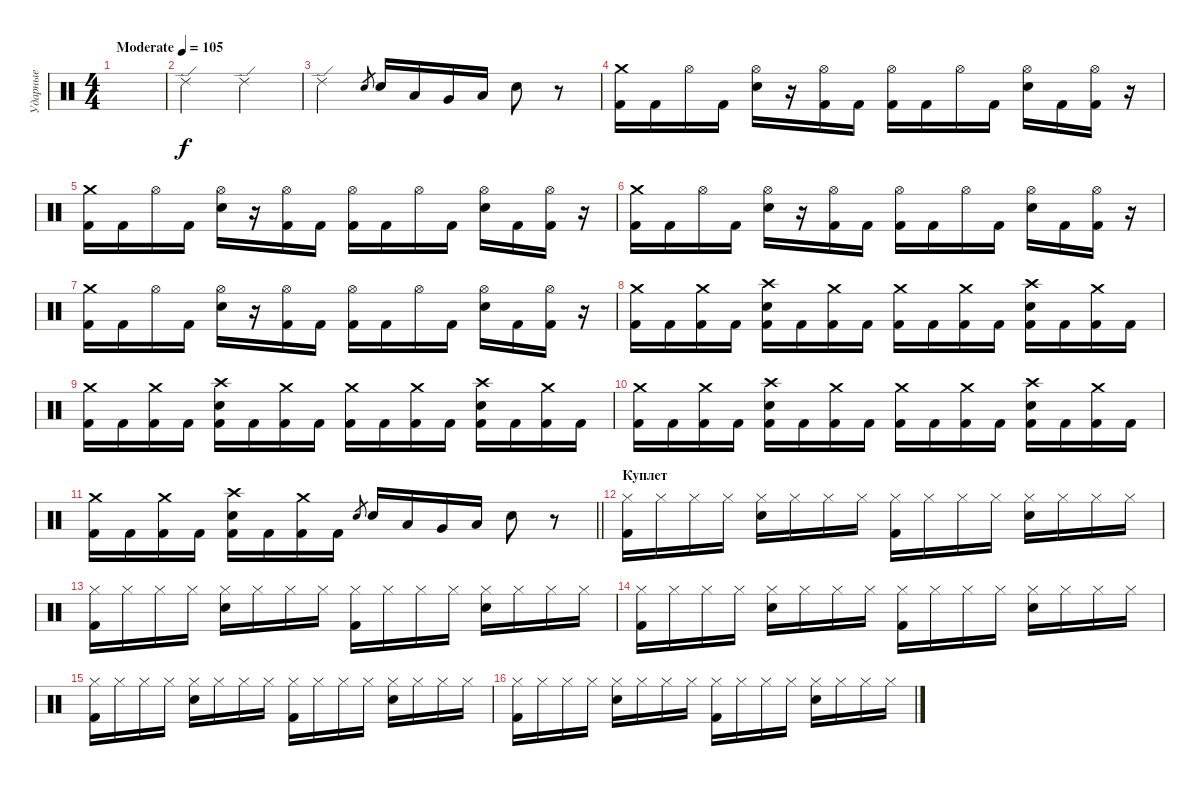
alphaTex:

\track ("Ударные" "Ударные") {instrument percussion}
\staff {score}
\articulation defaults
\ts (4 4)
\tempo (105 "Moderate")
\clef neutral
\ks c
|
"Ride (edge) 2".2 "Ride (edge) 2".2 |
"Ride (edge) 2".2 "Electric Snare (hit)".8{gr} "Electric Snare (hit)".16 "Low Tom (hit)".16 "Very Low Tom (hit)".16 "Low Floor Tom (hit)".16 "Electric Snare (hit)".8 r.8 |
("Crash medium (hit)" "Kick (hit) 2").16 "Kick (hit) 2".16 "Hi-Hat (open)".16 "Kick (hit) 2".16 ("Hi-Hat (open)" "Electric Snare (hit)").16 r.16 ("Hi-Hat (open)" "Kick (hit) 2").16 "Kick (hit) 2".16 ("Hi-Hat (open)" "Kick (hit) 2").16 "Kick (hit) 2".16 "Hi-Hat (open)".16 "Kick (hit) 2".16 ("Hi-Hat (open)" "Electric Snare (hit)").16 "Kick (hit) 2".16 ("Hi-Hat (open)" "Kick (hit) 2").16 r.16 |
("Crash medium (hit)" "Kick (hit) 2").16 "Kick (hit) 2".16 "Hi-Hat (open)".16 "Kick (hit) 2".16 ("Hi-Hat (open)" "Electric Snare (hit)").16 r.16 ("Hi-Hat (open)" "Kick (hit) 2").16 "Kick (hit) 2".16 ("Hi-Hat (open)" "Kick (hit) 2").16 "Kick (hit) 2".16 "Hi-Hat (open)".16 "Kick (hit) 2".16 ("Hi-Hat (open)" "Electric Snare (hit)").16 "Kick (hit) 2".16 ("Hi-Hat (open)" "Kick (hit) 2").16 r.16 |
("Crash medium (hit)" "Kick (hit) 2").16 "Kick (hit) 2".16 "Hi-Hat (open)".16 "Kick (hit) 2".16 ("Hi-Hat (open)" "Electric Snare (hit)").16 r.16 ("Hi-Hat (open)" "Kick (hit) 2").16 "Kick (hit) 2".16 ("Hi-Hat (open)" "Kick (hit) 2").16 "Kick (hit) 2".16 "Hi-Hat (open)".16 "Kick (hit) 2".16 ("Hi-Hat (open)" "Electric Snare (hit)").16 "Kick (hit) 2".16 ("Hi-Hat (open)" "Kick (hit) 2").16 r.16 |
("Crash medium (hit)" "Kick (hit) 2").16 "Kick (hit) 2".16 "Hi-Hat (open)".16 "Kick (hit) 2".16 ("Hi-Hat (open)" "Electric Snare (hit)").16 r.16 ("Hi-Hat (open)" "Kick (hit) 2").16 "Kick (hit) 2".16 ("Hi-Hat (open)" "Kick (hit) 2").16 "Kick (hit) 2".16 "Hi-Hat (open)".16 "Kick (hit) 2".16 ("Hi-Hat (open)" "Electric Snare (hit)").16 "Kick (hit) 2".16 ("Hi-Hat (open)" "Kick (hit) 2").16 r.16 |
("Crash medium (hit)" "Kick (hit) 2").16 "Kick (hit) 2".16 ("Crash medium (hit)" "Kick (hit) 2").16 "Kick (hit) 2".16 ("Crash high (hit)" "Electric Snare (hit)" "Kick (hit) 2").16 "Kick (hit) 2".16 ("Crash medium (hit)" "Kick (hit) 2").16 "Kick (hit) 2".16 ("Crash medium (hit)" "Kick (hit) 2").16 "Kick (hit) 2".16 ("Crash medium (hit)" "Kick (hit) 2").16 "Kick (hit) 2".16 ("Crash high (hit)" "Electric Snare (hit)" "Kick (hit) 2").16 "Kick (hit) 2".16 ("Crash medium (hit)" "Kick (hit) 2").16 "Kick (hit) 2".16 |
("Crash medium (hit)" "Kick (hit) 2").16 "Kick (hit) 2".16 ("Crash medium (hit)" "Kick (hit) 2").16 "Kick (hit) 2".16 ("Crash high (hit)" "Electric Snare (hit)" "Kick (hit) 2").16 "Kick (hit) 2".16 ("Crash medium (hit)" "Kick (hit) 2").16 "Kick (hit) 2".16 ("Crash medium (hit)" "Kick (hit) 2").16 "Kick (hit) 2".16 ("Crash medium (hit)" "Kick (hit) 2").16 "Kick (hit) 2".16 ("Crash high (hit)" "Electric Snare (hit)" "Kick (hit) 2").16 "Kick (hit) 2".16 ("Crash medium (hit)" "Kick (hit) 2").16 "Kick (hit) 2".16 |
("Crash medium (hit)" "Kick (hit) 2").16 "Kick (hit) 2".16 ("Crash medium (hit)" "Kick (hit) 2").16 "Kick (hit) 2".16 ("Crash high (hit)" "Electric Snare (hit)" "Kick (hit) 2").16 "Kick (hit) 2".16 ("Crash medium (hit)" "Kick (hit) 2").16 "Kick (hit) 2".16 ("Crash medium (hit)" "Kick (hit) 2").16 "Kick (hit) 2".16 ("Crash medium (hit)" "Kick (hit) 2").16 "Kick (hit) 2".16 ("Crash high (hit)" "Electric Snare (hit)" "Kick (hit) 2").16 "Kick (hit) 2".16 ("Crash medium (hit)" "Kick (hit) 2").16 "Kick (hit) 2".16 |
\barLineRight lightlight
("Crash medium (hit)" "Kick (hit) 2").16 "Kick (hit) 2".16 ("Crash medium (hit)" "Kick (hit) 2").16 "Kick (hit) 2".16 ("Crash high (hit)" "Electric Snare (hit)" "Kick (hit) 2").16 "Kick (hit) 2".16 ("Crash medium (hit)" "Kick (hit) 2").16 "Kick (hit) 2".16 "Electric Snare (hit)".8{gr} "Electric Snare (hit)".16 "Low Tom (hit)".16 "Very Low Tom (hit)".16 "Low Floor Tom (hit)".16 "Electric Snare (hit)".8 r.8 |
\section ("" "Куплет")
("Hi-Hat (closed)" "Kick (hit) 2").16 "Hi-Hat (closed)".16 "Hi-Hat (closed)".16 "Hi-Hat (closed)".16 ("Hi-Hat (closed)" "Electric Snare (hit)").16 "Hi-Hat (closed)".16 "Hi-Hat (closed)".16 "Hi-Hat (closed)".16 ("Hi-Hat (closed)" "Kick (hit) 2").16 "Hi-Hat (closed)".16 "Hi-Hat (closed)".16 "Hi-Hat (closed)".16 ("Hi-Hat (closed)" "Electric Snare (hit)").16 "Hi-Hat (closed)".16 "Hi-Hat (closed)".16 "Hi-Hat (closed)".16 |
("Hi-Hat (closed)" "Kick (hit) 2").16 "Hi-Hat (closed)".16 "Hi-Hat (closed)".16 "Hi-Hat (closed)".16 ("Hi-Hat (closed)" "Electric Snare (hit)").16 "Hi-Hat (closed)".16 "Hi-Hat (closed)".16 "Hi-Hat (closed)".16 ("Hi-Hat (closed)" "Kick (hit) 2").16 "Hi-Hat (closed)".16 "Hi-Hat (closed)".16 "Hi-Hat (closed)".16 ("Hi-Hat (closed)" "Electric Snare (hit)").16 "Hi-Hat (closed)".16 "Hi-Hat (closed)".16 "Hi-Hat (closed)".16 |
("Hi-Hat (closed)" "Kick (hit) 2").16 "Hi-Hat (closed)".16 "Hi-Hat (closed)".16 "Hi-Hat (closed)".16 ("Hi-Hat (closed)" "Electric Snare (hit)").16 "Hi-Hat (closed)".16 "Hi-Hat (closed)".16 "Hi-Hat (closed)".16 ("Hi-Hat (closed)" "Kick (hit) 2").16 "Hi-Hat (closed)".16 "Hi-Hat (closed)".16 "Hi-Hat (closed)".16 ("Hi-Hat (closed)" "Electric Snare (hit)").16 "Hi-Hat (closed)".16 "Hi-Hat (closed)".16 "Hi-Hat (closed)".16 |
("Hi-Hat (closed)" "Kick (hit) 2").16 "Hi-Hat (closed)".16 "Hi-Hat (closed)".16 "Hi-Hat (closed)".16 ("Hi-Hat (closed)" "Electric Snare (hit)").16 "Hi-Hat (closed)".16 "Hi-Hat (closed)".16 "Hi-Hat (closed)".16 ("Hi-Hat (closed)" "Kick (hit) 2").16 "Hi-Hat (closed)".16 "Hi-Hat (closed)".16 "Hi-Hat (closed)".16 ("Hi-Hat (closed)" "Electric Snare (hit)").16 "Hi-Hat (closed)".16 "Hi-Hat (closed)".16 "Hi-Hat (closed)".16 |
("Hi-Hat (closed)" "Kick (hit) 2").16 "Hi-Hat (closed)".16 "Hi-Hat (closed)".16 "Hi-Hat (closed)".16 ("Hi-Hat (closed)" "Electric Snare (hit)").16 "Hi-Hat (closed)".16 "Hi-Hat (closed)".16 "Hi-Hat (closed)".16 ("Hi-Hat (closed)" "Kick (hit) 2").16 "Hi-Hat (closed)".16 "Hi-Hat (closed)".16 "Hi-Hat (closed)".16 ("Hi-Hat (closed)" "Electric Snare (hit)").16 "Hi-Hat (closed)".16 "Hi-Hat (closed)".16 "Hi-Hat (closed)".16
